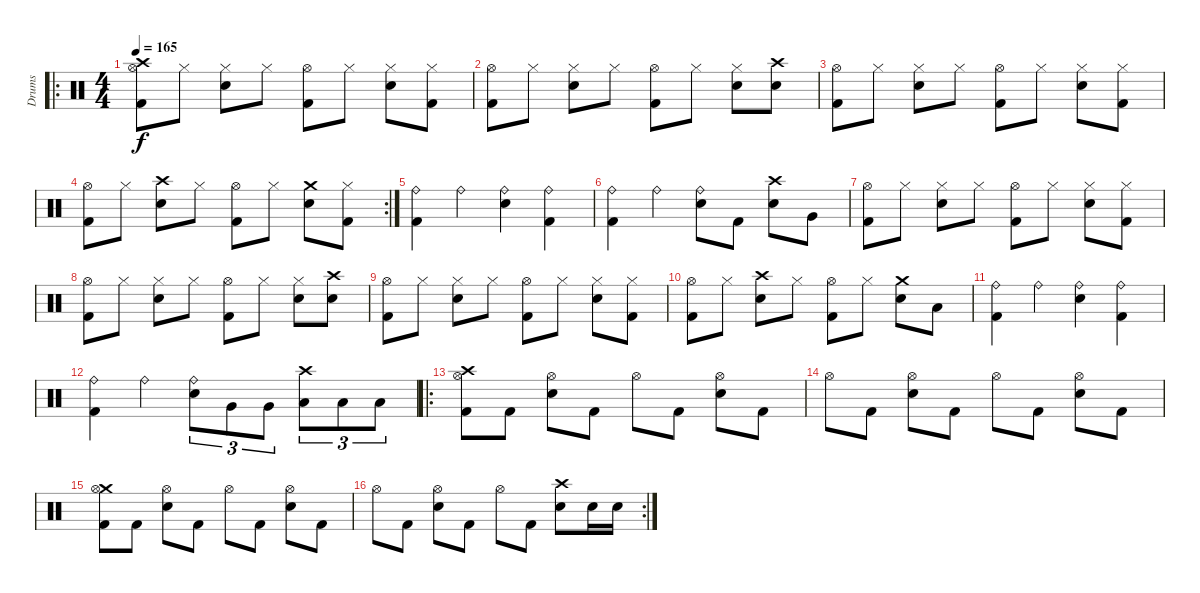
\track ("Drums" "Drums") {instrument percussion}
\staff {score}
\articulation defaults
\ro
\ts (4 4)
\tempo 165
\clef neutral
\ks c
("Crash high (hit)" "Hi-Hat (open)" "Kick (hit) 2").8{dy f} "Hi-Hat (closed)".8 ("Hi-Hat (closed)" "Snare (hit) 2").8 "Hi-Hat (closed)".8 ("Hi-Hat (open)" "Kick (hit) 2").8 "Hi-Hat (closed)".8 ("Hi-Hat (closed)" "Snare (hit) 2").8 ("Hi-Hat (closed)" "Kick (hit) 2").8 |
("Hi-Hat (open)" "Kick (hit) 2").8 "Hi-Hat (closed)".8 ("Hi-Hat (closed)" "Snare (hit) 2").8 "Hi-Hat (closed)".8 ("Hi-Hat (open)" "Kick (hit) 2").8 "Hi-Hat (closed)".8 ("Hi-Hat (closed)" "Snare (hit) 2").8 ("Crash high (hit)" "Snare (hit) 2").8 |
("Hi-Hat (open)" "Kick (hit) 2").8 "Hi-Hat (closed)".8 ("Hi-Hat (closed)" "Snare (hit) 2").8 "Hi-Hat (closed)".8 ("Hi-Hat (open)" "Kick (hit) 2").8 "Hi-Hat (closed)".8 ("Hi-Hat (closed)" "Snare (hit) 2").8 ("Hi-Hat (closed)" "Kick (hit) 2").8 |
\rc 2
("Hi-Hat (open)" "Kick (hit) 2").8 "Hi-Hat (closed)".8 ("Crash high (hit)" "Snare (hit) 2").8 "Hi-Hat (closed)".8 ("Hi-Hat (open)" "Kick (hit) 2").8 "Hi-Hat (closed)".8 ("Crash medium (hit)" "Snare (hit) 2").8 ("Hi-Hat (closed)" "Kick (hit) 2").8 |
("Ride (bell)" "Kick (hit) 2").4 "Ride (bell)".4 ("Ride (bell)" "Snare (hit) 2").4 ("Ride (bell)" "Kick (hit) 2").4 |
("Ride (bell)" "Kick (hit) 2").4 "Ride (bell)".4 ("Ride (bell)" "Snare (hit) 2").8 "Kick (hit) 2".8 ("Crash high (hit)" "Snare (hit) 2").8 "Very Low Tom (hit)".8 |
("Hi-Hat (open)" "Kick (hit) 2").8 "Hi-Hat (closed)".8 ("Hi-Hat (closed)" "Snare (hit) 2").8 "Hi-Hat (closed)".8 ("Hi-Hat (open)" "Kick (hit) 2").8 "Hi-Hat (closed)".8 ("Hi-Hat (closed)" "Snare (hit) 2").8 ("Hi-Hat (closed)" "Kick (hit) 2").8 |
("Hi-Hat (open)" "Kick (hit) 2").8 "Hi-Hat (closed)".8 ("Hi-Hat (closed)" "Snare (hit) 2").8 "Hi-Hat (closed)".8 ("Hi-Hat (open)" "Kick (hit) 2").8 "Hi-Hat (closed)".8 ("Hi-Hat (closed)" "Snare (hit) 2").8 ("Crash high (hit)" "Snare (hit) 2").8 |
("Hi-Hat (open)" "Kick (hit) 2").8 "Hi-Hat (closed)".8 ("Hi-Hat (closed)" "Snare (hit) 2").8 "Hi-Hat (closed)".8 ("Hi-Hat (open)" "Kick (hit) 2").8 "Hi-Hat (closed)".8 ("Hi-Hat (closed)" "Snare (hit) 2").8 ("Hi-Hat (closed)" "Kick (hit) 2").8 |
("Hi-Hat (open)" "Kick (hit) 2").8 "Hi-Hat (closed)".8 ("Crash high (hit)" "Snare (hit) 2").8 "Hi-Hat (closed)".8 ("Hi-Hat (open)" "Kick (hit) 2").8 "Hi-Hat (closed)".8 ("Crash medium (hit)" "Snare (hit) 2").8 "Low Tom (hit)".8 |
("Ride (bell)" "Kick (hit) 2").4 "Ride (bell)".4 ("Ride (bell)" "Snare (hit) 2").4 ("Ride (bell)" "Kick (hit) 2").4 |
("Ride (bell)" "Kick (hit) 2").4 "Ride (bell)".4 ("Ride (bell)" "Snare (hit) 2").8{tu (3 2)} "Very Low Tom (hit)".8{tu (3 2)} "Very Low Tom (hit)".8{tu (3 2)} ("Crash high (hit)" "Low Tom (hit)").8{tu (3 2)} "Low Tom (hit)".8{tu (3 2)} "Low Tom (hit)".8{tu (3 2)} |
\ro
("Crash high (hit)" "Hi-Hat (open)" "Kick (hit) 2").8 "Kick (hit) 2".8 ("Hi-Hat (open)" "Snare (hit) 2").8 "Kick (hit) 2".8 "Hi-Hat (open)".8 "Kick (hit) 2".8 ("Hi-Hat (open)" "Snare (hit) 2").8 "Kick (hit) 2".8 |
"Hi-Hat (open)".8 "Kick (hit) 2".8 ("Hi-Hat (open)" "Snare (hit) 2").8 "Kick (hit) 2".8 "Hi-Hat (open)".8 "Kick (hit) 2".8 ("Hi-Hat (open)" "Snare (hit) 2").8 "Kick (hit) 2".8 |
("Crash medium (hit)" "Hi-Hat (open)" "Kick (hit) 2").8 "Kick (hit) 2".8 ("Hi-Hat (open)" "Snare (hit) 2").8 "Kick (hit) 2".8 "Hi-Hat (open)".8 "Kick (hit) 2".8 ("Hi-Hat (open)" "Snare (hit) 2").8 "Kick (hit) 2".8 |
\rc 2 "Hi-Hat (open)".8 "Kick (hit) 2".8
("Hi-Hat (open)" "Snare (hit) 2").8 "Kick (hit) 2".8 "Hi-Hat (open)".8 "Kick (hit) 2".8 ("Crash high (hit)" "Snare (hit) 2").8 "Snare (hit) 2".16 "Snare (hit) 2".16
